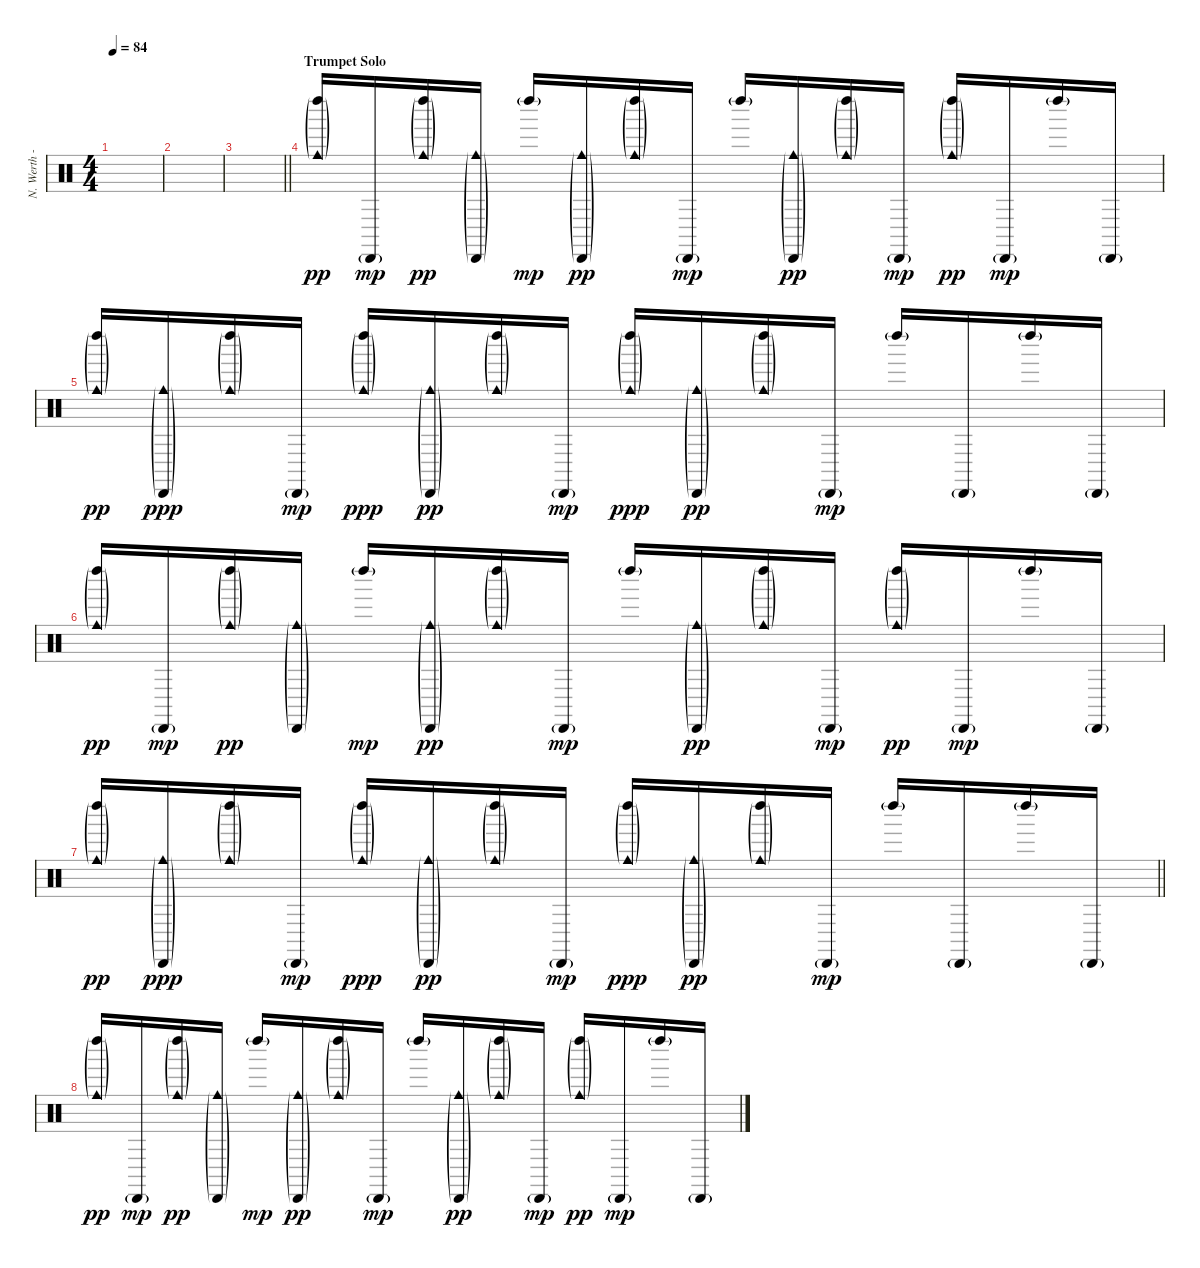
\track ("N. Werth - Percussion" "N. Werth -") {instrument percussion}
\staff {score}
\articulation defaults
\ts (4 4)
\tempo 84
\clef neutral
\ks c
|
|
\barLineRight lightlight
|
\section ("" "Trumpet Solo")
("Left Maraca (hit)"{g} "Cowbell medium (hit)"{g}).16{dy pp} "Cabasa (hit)"{g}.16{dy mp} ("Left Maraca (hit)"{g} "Cowbell medium (hit)"{g}).16{dy pp} ("Cabasa (hit)"{g} "Cowbell medium (hit)"{g}).16 "Left Maraca (hit)"{g}.16{dy mp} ("Cabasa (hit)"{g} "Cowbell medium (hit)"{g}).16{dy pp} ("Left Maraca (hit)"{g} "Cowbell medium (hit)"{g}).16 "Cabasa (hit)"{g}.16{dy mp} "Left Maraca (hit)"{g}.16 ("Cabasa (hit)"{g} "Cowbell medium (hit)"{g}).16{dy pp} ("Left Maraca (hit)"{g} "Cowbell medium (hit)"{g}).16 "Cabasa (hit)"{g}.16{dy mp} ("Left Maraca (hit)"{g} "Cowbell medium (hit)"{g}).16{dy pp} "Cabasa (hit)"{g}.16{dy mp} "Left Maraca (hit)"{g}.16 "Cabasa (hit)"{g}.16 |
("Left Maraca (hit)"{g} "Cowbell medium (hit)"{g}).16{dy pp} ("Cabasa (hit)"{g} "Cowbell medium (hit)"{g}).16{dy ppp} ("Left Maraca (hit)"{g} "Cowbell medium (hit)"{g}).16 "Cabasa (hit)"{g}.16{dy mp} ("Left Maraca (hit)"{g} "Cowbell medium (hit)"{g}).16{dy ppp} ("Cabasa (hit)"{g} "Cowbell medium (hit)"{g}).16{dy pp} ("Left Maraca (hit)"{g} "Cowbell medium (hit)"{g}).16 "Cabasa (hit)"{g}.16{dy mp} ("Left Maraca (hit)"{g} "Cowbell medium (hit)"{g}).16{dy ppp} ("Cabasa (hit)"{g} "Cowbell medium (hit)"{g}).16{dy pp} ("Left Maraca (hit)"{g} "Cowbell medium (hit)"{g}).16 "Cabasa (hit)"{g}.16{dy mp} "Left Maraca (hit)"{g}.16 "Cabasa (hit)"{g}.16 "Left Maraca (hit)"{g}.16 "Cabasa (hit)"{g}.16 |
("Left Maraca (hit)"{g} "Cowbell medium (hit)"{g}).16{dy pp} "Cabasa (hit)"{g}.16{dy mp} ("Left Maraca (hit)"{g} "Cowbell medium (hit)"{g}).16{dy pp} ("Cabasa (hit)"{g} "Cowbell medium (hit)"{g}).16 "Left Maraca (hit)"{g}.16{dy mp} ("Cabasa (hit)"{g} "Cowbell medium (hit)"{g}).16{dy pp} ("Left Maraca (hit)"{g} "Cowbell medium (hit)"{g}).16 "Cabasa (hit)"{g}.16{dy mp} "Left Maraca (hit)"{g}.16 ("Cabasa (hit)"{g} "Cowbell medium (hit)"{g}).16{dy pp} ("Left Maraca (hit)"{g} "Cowbell medium (hit)"{g}).16 "Cabasa (hit)"{g}.16{dy mp} ("Left Maraca (hit)"{g} "Cowbell medium (hit)"{g}).16{dy pp} "Cabasa (hit)"{g}.16{dy mp} "Left Maraca (hit)"{g}.16 "Cabasa (hit)"{g}.16 |
\barLineRight lightlight
("Left Maraca (hit)"{g} "Cowbell medium (hit)"{g}).16{dy pp} ("Cabasa (hit)"{g} "Cowbell medium (hit)"{g}).16{dy ppp} ("Left Maraca (hit)"{g} "Cowbell medium (hit)"{g}).16 "Cabasa (hit)"{g}.16{dy mp} ("Left Maraca (hit)"{g} "Cowbell medium (hit)"{g}).16{dy ppp} ("Cabasa (hit)"{g} "Cowbell medium (hit)"{g}).16{dy pp} ("Left Maraca (hit)"{g} "Cowbell medium (hit)"{g}).16 "Cabasa (hit)"{g}.16{dy mp} ("Left Maraca (hit)"{g} "Cowbell medium (hit)"{g}).16{dy ppp} ("Cabasa (hit)"{g} "Cowbell medium (hit)"{g}).16{dy pp} ("Left Maraca (hit)"{g} "Cowbell medium (hit)"{g}).16 "Cabasa (hit)"{g}.16{dy mp} "Left Maraca (hit)"{g}.16 "Cabasa (hit)"{g}.16 "Left Maraca (hit)"{g}.16 "Cabasa (hit)"{g}.16 |
("Left Maraca (hit)"{g} "Cowbell medium (hit)"{g}).16{dy pp} "Cabasa (hit)"{g}.16{dy mp} ("Left Maraca (hit)"{g} "Cowbell medium (hit)"{g}).16{dy pp} ("Cabasa (hit)"{g} "Cowbell medium (hit)"{g}).16 "Left Maraca (hit)"{g}.16{dy mp} ("Cabasa (hit)"{g} "Cowbell medium (hit)"{g}).16{dy pp} ("Left Maraca (hit)"{g} "Cowbell medium (hit)"{g}).16 "Cabasa (hit)"{g}.16{dy mp} "Left Maraca (hit)"{g}.16 ("Cabasa (hit)"{g} "Cowbell medium (hit)"{g}).16{dy pp} ("Left Maraca (hit)"{g} "Cowbell medium (hit)"{g}).16 "Cabasa (hit)"{g}.16{dy mp} ("Left Maraca (hit)"{g} "Cowbell medium (hit)"{g}).16{dy pp} "Cabasa (hit)"{g}.16{dy mp} "Left Maraca (hit)"{g}.16 "Cabasa (hit)"{g}.16
